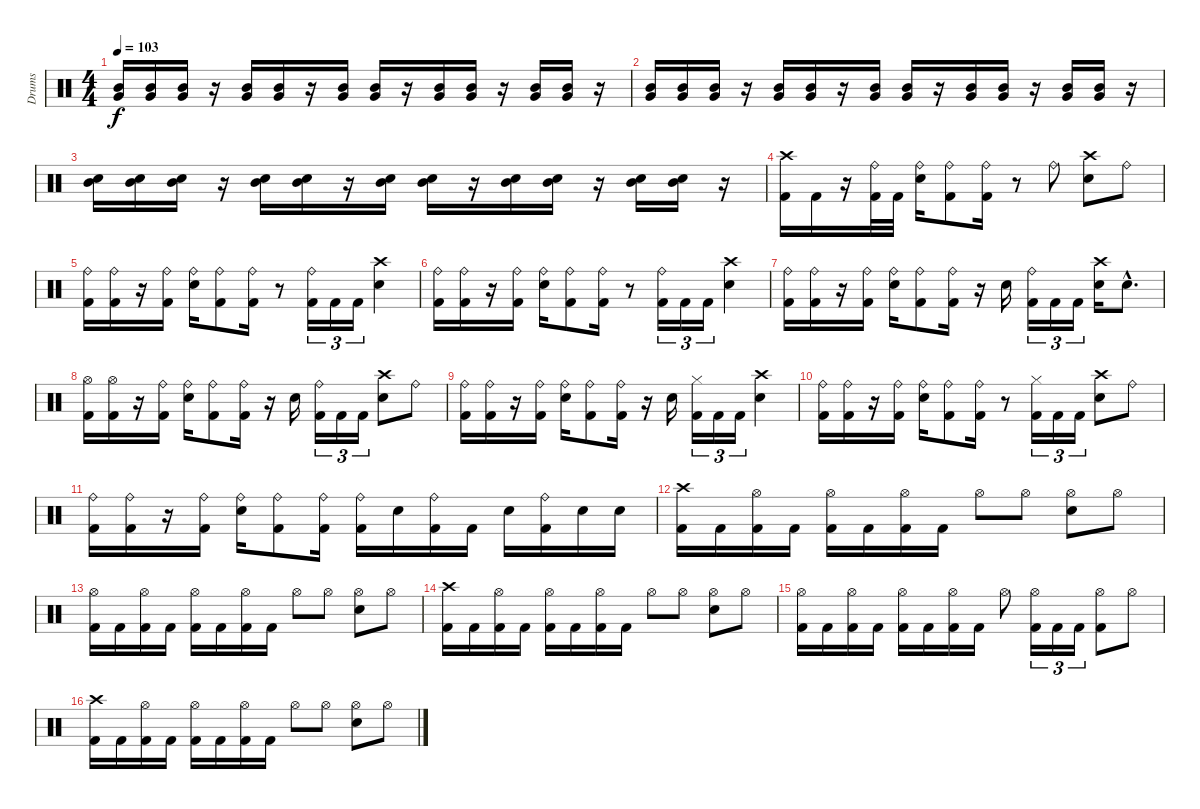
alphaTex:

\track ("Drums" "Drums") {instrument percussion}
\staff {score}
\articulation defaults
\ts (4 4)
\tempo 103
\clef neutral
\ks c
("Mid Tom (hit)" "Very Low Tom (hit)").16{dy f} ("Mid Tom (hit)" "Very Low Tom (hit)").16 ("Mid Tom (hit)" "Very Low Tom (hit)").16 r.16 ("Mid Tom (hit)" "Very Low Tom (hit)").16 ("Mid Tom (hit)" "Very Low Tom (hit)").16 r.16 ("Mid Tom (hit)" "Very Low Tom (hit)").16 ("Mid Tom (hit)" "Very Low Tom (hit)").16 r.16 ("Mid Tom (hit)" "Very Low Tom (hit)").16 ("Mid Tom (hit)" "Very Low Tom (hit)").16 r.16 ("Mid Tom (hit)" "Very Low Tom (hit)").16 ("Mid Tom (hit)" "Very Low Tom (hit)").16 r.16 |
("Mid Tom (hit)" "Very Low Tom (hit)").16 ("Mid Tom (hit)" "Very Low Tom (hit)").16 ("Mid Tom (hit)" "Very Low Tom (hit)").16 r.16 ("Mid Tom (hit)" "Very Low Tom (hit)").16 ("Mid Tom (hit)" "Very Low Tom (hit)").16 r.16 ("Mid Tom (hit)" "Very Low Tom (hit)").16 ("Mid Tom (hit)" "Very Low Tom (hit)").16 r.16 ("Mid Tom (hit)" "Very Low Tom (hit)").16 ("Mid Tom (hit)" "Very Low Tom (hit)").16 r.16 ("Mid Tom (hit)" "Very Low Tom (hit)").16 ("Mid Tom (hit)" "Very Low Tom (hit)").16 r.16 |
("Mid Tom (hit)" "Electric Snare (hit)").16 ("Mid Tom (hit)" "Electric Snare (hit)").16 ("Mid Tom (hit)" "Electric Snare (hit)").16 r.16 ("Mid Tom (hit)" "Electric Snare (hit)").16 ("Mid Tom (hit)" "Electric Snare (hit)").16 r.16 ("Mid Tom (hit)" "Electric Snare (hit)").16 ("Mid Tom (hit)" "Electric Snare (hit)").16 r.16 ("Mid Tom (hit)" "Electric Snare (hit)").16 ("Mid Tom (hit)" "Electric Snare (hit)").16 r.16 ("Mid Tom (hit)" "Electric Snare (hit)").16 ("Mid Tom (hit)" "Electric Snare (hit)").16 r.16 |
("Crash high (hit)" "Kick (hit) 2").16 "Kick (hit) 2".16 r.16 ("Ride (bell)" "Kick (hit) 2").32 "Kick (hit) 2".32 ("Ride (bell)" "Electric Snare (hit)").16 ("Ride (bell)" "Kick (hit) 2").8 ("Ride (bell)" "Kick (hit) 2").16 r.8 "Ride (bell)".8 ("Crash high (hit)" "Electric Snare (hit)").8 "Ride (bell)".8 |
("Ride (bell)" "Kick (hit) 2").16 ("Ride (bell)" "Kick (hit) 2").16 r.16 ("Ride (bell)" "Kick (hit) 2").16 ("Ride (bell)" "Electric Snare (hit)").16 ("Ride (bell)" "Kick (hit) 2").8 ("Ride (bell)" "Kick (hit) 2").16 r.8 ("Ride (bell)" "Kick (hit) 2").16{tu (3 2)} "Kick (hit) 2".16{tu (3 2)} "Kick (hit) 2".16{tu (3 2)} ("Crash high (hit)" "Electric Snare (hit)").4 |
("Ride (bell)" "Kick (hit) 2").16 ("Ride (bell)" "Kick (hit) 2").16 r.16 ("Ride (bell)" "Kick (hit) 2").16 ("Ride (bell)" "Electric Snare (hit)").16 ("Ride (bell)" "Kick (hit) 2").8 ("Ride (bell)" "Kick (hit) 2").16 r.8 ("Ride (bell)" "Kick (hit) 2").16{tu (3 2)} "Kick (hit) 2".16{tu (3 2)} "Kick (hit) 2".16{tu (3 2)} ("Crash high (hit)" "Electric Snare (hit)").4 |
("Ride (bell)" "Kick (hit) 2").16 ("Ride (bell)" "Kick (hit) 2").16 r.16 ("Ride (bell)" "Kick (hit) 2").16 ("Ride (bell)" "Electric Snare (hit)").16 ("Ride (bell)" "Kick (hit) 2").8 ("Ride (bell)" "Kick (hit) 2").16 r.16 "Electric Snare (hit)".16 ("Ride (bell)" "Kick (hit) 2").16{tu (3 2)} "Kick (hit) 2".16{tu (3 2)} "Kick (hit) 2".16{tu (3 2)} ("Crash high (hit)" "Electric Snare (hit)").16 "Electric Snare (hit)"{hac}.8{d} |
("Hi-Hat (open)" "Kick (hit) 2").16 ("Hi-Hat (open)" "Kick (hit) 2").16 r.16 ("Ride (bell)" "Kick (hit) 2").16 ("Ride (bell)" "Electric Snare (hit)").16 ("Ride (bell)" "Kick (hit) 2").8 ("Ride (bell)" "Kick (hit) 2").16 r.16 "Electric Snare (hit)".16 ("Ride (bell)" "Kick (hit) 2").16{tu (3 2)} "Kick (hit) 2".16{tu (3 2)} "Kick (hit) 2".16{tu (3 2)} ("Crash high (hit)" "Electric Snare (hit)").8 "Ride (bell)".8 |
("Ride (bell)" "Kick (hit) 2").16 ("Ride (bell)" "Kick (hit) 2").16 r.16 ("Ride (bell)" "Kick (hit) 2").16 ("Ride (bell)" "Electric Snare (hit)").16 ("Ride (bell)" "Kick (hit) 2").8 ("Ride (bell)" "Kick (hit) 2").16 r.16 "Electric Snare (hit)".16 ("Hi-Hat (closed)" "Kick (hit) 2").16{tu (3 2)} "Kick (hit) 2".16{tu (3 2)} "Kick (hit) 2".16{tu (3 2)} ("Crash high (hit)" "Electric Snare (hit)").4 |
("Ride (bell)" "Kick (hit) 2").16 ("Ride (bell)" "Kick (hit) 2").16 r.16 ("Ride (bell)" "Kick (hit) 2").16 ("Ride (bell)" "Electric Snare (hit)").16 ("Ride (bell)" "Kick (hit) 2").8 ("Ride (bell)" "Kick (hit) 2").16 r.8 ("Hi-Hat (closed)" "Kick (hit) 2").16{tu (3 2)} "Kick (hit) 2".16{tu (3 2)} "Kick (hit) 2".16{tu (3 2)} ("Crash high (hit)" "Electric Snare (hit)").8 "Ride (bell)".8 |
("Ride (bell)" "Kick (hit) 2").16 ("Ride (bell)" "Kick (hit) 2").16 r.16 ("Ride (bell)" "Kick (hit) 2").16 ("Ride (bell)" "Electric Snare (hit)").16 ("Ride (bell)" "Kick (hit) 2").8 ("Ride (bell)" "Kick (hit) 2").16 ("Ride (bell)" "Kick (hit) 2").16 "Electric Snare (hit)".16 ("Ride (bell)" "Kick (hit) 2").16 "Kick (hit) 2".16 "Electric Snare (hit)".16 ("Ride (bell)" "Kick (hit) 2").16 "Electric Snare (hit)".16 "Electric Snare (hit)".16 |
("Crash high (hit)" "Kick (hit) 2").16 "Kick (hit) 2".16 ("Hi-Hat (open)" "Kick (hit) 2").16 "Kick (hit) 2".16 ("Hi-Hat (open)" "Kick (hit) 2").16 "Kick (hit) 2".16 ("Hi-Hat (open)" "Kick (hit) 2").16 "Kick (hit) 2".16 "Hi-Hat (open)".8 "Hi-Hat (open)".8 ("Hi-Hat (open)" "Electric Snare (hit)").8 "Hi-Hat (open)".8 |
("Hi-Hat (open)" "Kick (hit) 2").16 "Kick (hit) 2".16 ("Hi-Hat (open)" "Kick (hit) 2").16 "Kick (hit) 2".16 ("Hi-Hat (open)" "Kick (hit) 2").16 "Kick (hit) 2".16 ("Hi-Hat (open)" "Kick (hit) 2").16 "Kick (hit) 2".16 "Hi-Hat (open)".8 "Hi-Hat (open)".8 ("Hi-Hat (open)" "Electric Snare (hit)").8 "Hi-Hat (open)".8 |
("Crash high (hit)" "Kick (hit) 2").16 "Kick (hit) 2".16 ("Hi-Hat (open)" "Kick (hit) 2").16 "Kick (hit) 2".16 ("Hi-Hat (open)" "Kick (hit) 2").16 "Kick (hit) 2".16 ("Hi-Hat (open)" "Kick (hit) 2").16 "Kick (hit) 2".16 "Hi-Hat (open)".8 "Hi-Hat (open)".8 ("Hi-Hat (open)" "Electric Snare (hit)").8 "Hi-Hat (open)".8 |
("Hi-Hat (open)" "Kick (hit) 2").16 "Kick (hit) 2".16 ("Hi-Hat (open)" "Kick (hit) 2").16 "Kick (hit) 2".16 ("Hi-Hat (open)" "Kick (hit) 2").16 "Kick (hit) 2".16 ("Hi-Hat (open)" "Kick (hit) 2").16 "Kick (hit) 2".16 "Hi-Hat (open)".8 ("Hi-Hat (open)" "Kick (hit) 2").16{tu (3 2)} "Kick (hit) 2".16{tu (3 2)} "Kick (hit) 2".16{tu (3 2)} ("Hi-Hat (open)" "Kick (hit) 2").8 "Hi-Hat (open)".8 |
("Crash high (hit)" "Kick (hit) 2").16 "Kick (hit) 2".16 ("Hi-Hat (open)" "Kick (hit) 2").16 "Kick (hit) 2".16 ("Hi-Hat (open)" "Kick (hit) 2").16 "Kick (hit) 2".16 ("Hi-Hat (open)" "Kick (hit) 2").16 "Kick (hit) 2".16 "Hi-Hat (open)".8 "Hi-Hat (open)".8 ("Hi-Hat (open)" "Electric Snare (hit)").8 "Hi-Hat (open)".8
